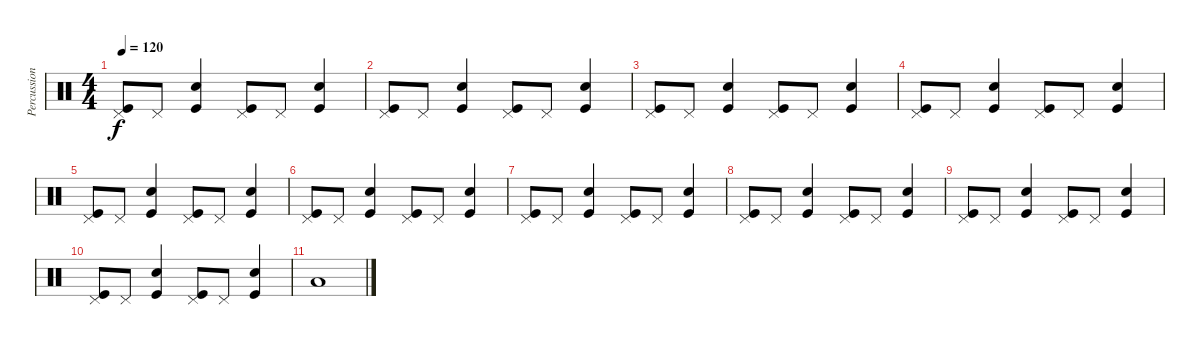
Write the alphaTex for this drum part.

\track ("Percussion" "Percussion") {instrument percussion}
\staff {score}
\articulation defaults
\ts (4 4)
\tempo 120
\clef neutral
\ks c
("Pedal Hi-Hat (hit)" "Kick (hit)").8{dy f} "Pedal Hi-Hat (hit)".8 ("Snare (hit) 2" "Kick (hit)").4 ("Pedal Hi-Hat (hit)" "Kick (hit)").8 "Pedal Hi-Hat (hit)".8 ("Snare (hit) 2" "Kick (hit)").4 |
("Pedal Hi-Hat (hit)" "Kick (hit)").8 "Pedal Hi-Hat (hit)".8 ("Snare (hit) 2" "Kick (hit)").4 ("Pedal Hi-Hat (hit)" "Kick (hit)").8 "Pedal Hi-Hat (hit)".8 ("Snare (hit) 2" "Kick (hit)").4 |
("Pedal Hi-Hat (hit)" "Kick (hit)").8 "Pedal Hi-Hat (hit)".8 ("Snare (hit) 2" "Kick (hit)").4 ("Pedal Hi-Hat (hit)" "Kick (hit)").8 "Pedal Hi-Hat (hit)".8 ("Snare (hit) 2" "Kick (hit)").4 |
("Pedal Hi-Hat (hit)" "Kick (hit)").8 "Pedal Hi-Hat (hit)".8 ("Snare (hit) 2" "Kick (hit)").4 ("Pedal Hi-Hat (hit)" "Kick (hit)").8 "Pedal Hi-Hat (hit)".8 ("Snare (hit) 2" "Kick (hit)").4 |
("Pedal Hi-Hat (hit)" "Kick (hit)").8 "Pedal Hi-Hat (hit)".8 ("Snare (hit) 2" "Kick (hit)").4 ("Pedal Hi-Hat (hit)" "Kick (hit)").8 "Pedal Hi-Hat (hit)".8 ("Snare (hit) 2" "Kick (hit)").4 |
("Pedal Hi-Hat (hit)" "Kick (hit)").8 "Pedal Hi-Hat (hit)".8 ("Snare (hit) 2" "Kick (hit)").4 ("Pedal Hi-Hat (hit)" "Kick (hit)").8 "Pedal Hi-Hat (hit)".8 ("Snare (hit) 2" "Kick (hit)").4 |
("Pedal Hi-Hat (hit)" "Kick (hit)").8 "Pedal Hi-Hat (hit)".8 ("Snare (hit) 2" "Kick (hit)").4 ("Pedal Hi-Hat (hit)" "Kick (hit)").8 "Pedal Hi-Hat (hit)".8 ("Snare (hit) 2" "Kick (hit)").4 |
("Pedal Hi-Hat (hit)" "Kick (hit)").8 "Pedal Hi-Hat (hit)".8 ("Snare (hit) 2" "Kick (hit)").4 ("Pedal Hi-Hat (hit)" "Kick (hit)").8 "Pedal Hi-Hat (hit)".8 ("Snare (hit) 2" "Kick (hit)").4 |
("Pedal Hi-Hat (hit)" "Kick (hit)").8 "Pedal Hi-Hat (hit)".8 ("Snare (hit) 2" "Kick (hit)").4 ("Pedal Hi-Hat (hit)" "Kick (hit)").8 "Pedal Hi-Hat (hit)".8 ("Snare (hit) 2" "Kick (hit)").4 |
("Pedal Hi-Hat (hit)" "Kick (hit)").8 "Pedal Hi-Hat (hit)".8 ("Snare (hit) 2" "Kick (hit)").4 ("Pedal Hi-Hat (hit)" "Kick (hit)").8 "Pedal Hi-Hat (hit)".8 ("Snare (hit) 2" "Kick (hit)").4 |
"Low Tom (hit)".1
